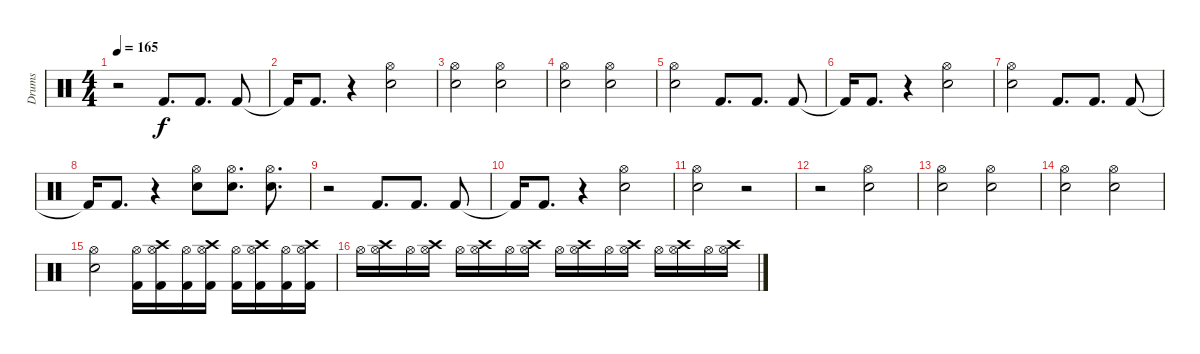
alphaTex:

\track ("Drums" "Drums") {instrument percussion}
\staff {score}
\articulation defaults
\ts (4 4)
\tempo 165
\clef neutral
\ks c
r.2{dy f} "Kick (hit) 2".8{d} "Kick (hit) 2".8{d} "Kick (hit) 2".8 |
"Kick (hit) 2"{t}.16 "Kick (hit) 2".8{d} r.4 ("Snare (hit) 2" "Hi-Hat (open)").2 |
("Snare (hit) 2" "Hi-Hat (open)").2 ("Snare (hit) 2" "Hi-Hat (open)").2 |
("Snare (hit) 2" "Hi-Hat (open)").2 ("Snare (hit) 2" "Hi-Hat (open)").2 |
("Snare (hit) 2" "Hi-Hat (open)").2 "Kick (hit) 2".8{d} "Kick (hit) 2".8{d} "Kick (hit) 2".8 |
"Kick (hit) 2"{t}.16 "Kick (hit) 2".8{d} r.4 ("Snare (hit) 2" "Hi-Hat (open)").2 |
("Snare (hit) 2" "Hi-Hat (open)").2 "Kick (hit) 2".8{d} "Kick (hit) 2".8{d} "Kick (hit) 2".8 |
"Kick (hit) 2"{t}.16 "Kick (hit) 2".8{d} r.4 ("Snare (hit) 2" "Hi-Hat (open)").8 ("Snare (hit) 2" "Hi-Hat (open)").8{d} ("Snare (hit) 2" "Hi-Hat (open)").8{d} |
r.2 "Kick (hit) 2".8{d} "Kick (hit) 2".8{d} "Kick (hit) 2".8 |
"Kick (hit) 2"{t}.16 "Kick (hit) 2".8{d} r.4 ("Snare (hit) 2" "Hi-Hat (open)").2 |
("Snare (hit) 2" "Hi-Hat (open)").2 r.2 |
r.2 ("Snare (hit) 2" "Hi-Hat (open)").2 |
("Snare (hit) 2" "Hi-Hat (open)").2 ("Snare (hit) 2" "Hi-Hat (open)").2 |
("Snare (hit) 2" "Hi-Hat (open)").2 ("Snare (hit) 2" "Hi-Hat (open)").2 |
("Snare (hit) 2" "Hi-Hat (open)").2 ("Kick (hit) 2" "Hi-Hat (open)").16 ("Kick (hit) 2" "Hi-Hat (open)" "Crash high (hit)").16 ("Kick (hit) 2" "Hi-Hat (open)").16 ("Kick (hit) 2" "Hi-Hat (open)" "Crash high (hit)").16 ("Kick (hit) 2" "Hi-Hat (open)").16 ("Kick (hit) 2" "Hi-Hat (open)" "Crash high (hit)").16 ("Kick (hit) 2" "Hi-Hat (open)").16 ("Kick (hit) 2" "Hi-Hat (open)" "Crash high (hit)").16 |
"Hi-Hat (open)".16 ("Hi-Hat (open)" "Crash high (hit)").16 "Hi-Hat (open)".16 ("Hi-Hat (open)" "Crash high (hit)").16 "Hi-Hat (open)".16 ("Hi-Hat (open)" "Crash high (hit)").16 "Hi-Hat (open)".16 ("Hi-Hat (open)" "Crash high (hit)").16 "Hi-Hat (open)".16 ("Hi-Hat (open)" "Crash high (hit)").16 "Hi-Hat (open)".16 ("Hi-Hat (open)" "Crash high (hit)").16 "Hi-Hat (open)".16 ("Hi-Hat (open)" "Crash high (hit)").16 "Hi-Hat (open)".16 ("Hi-Hat (open)" "Crash high (hit)").16
